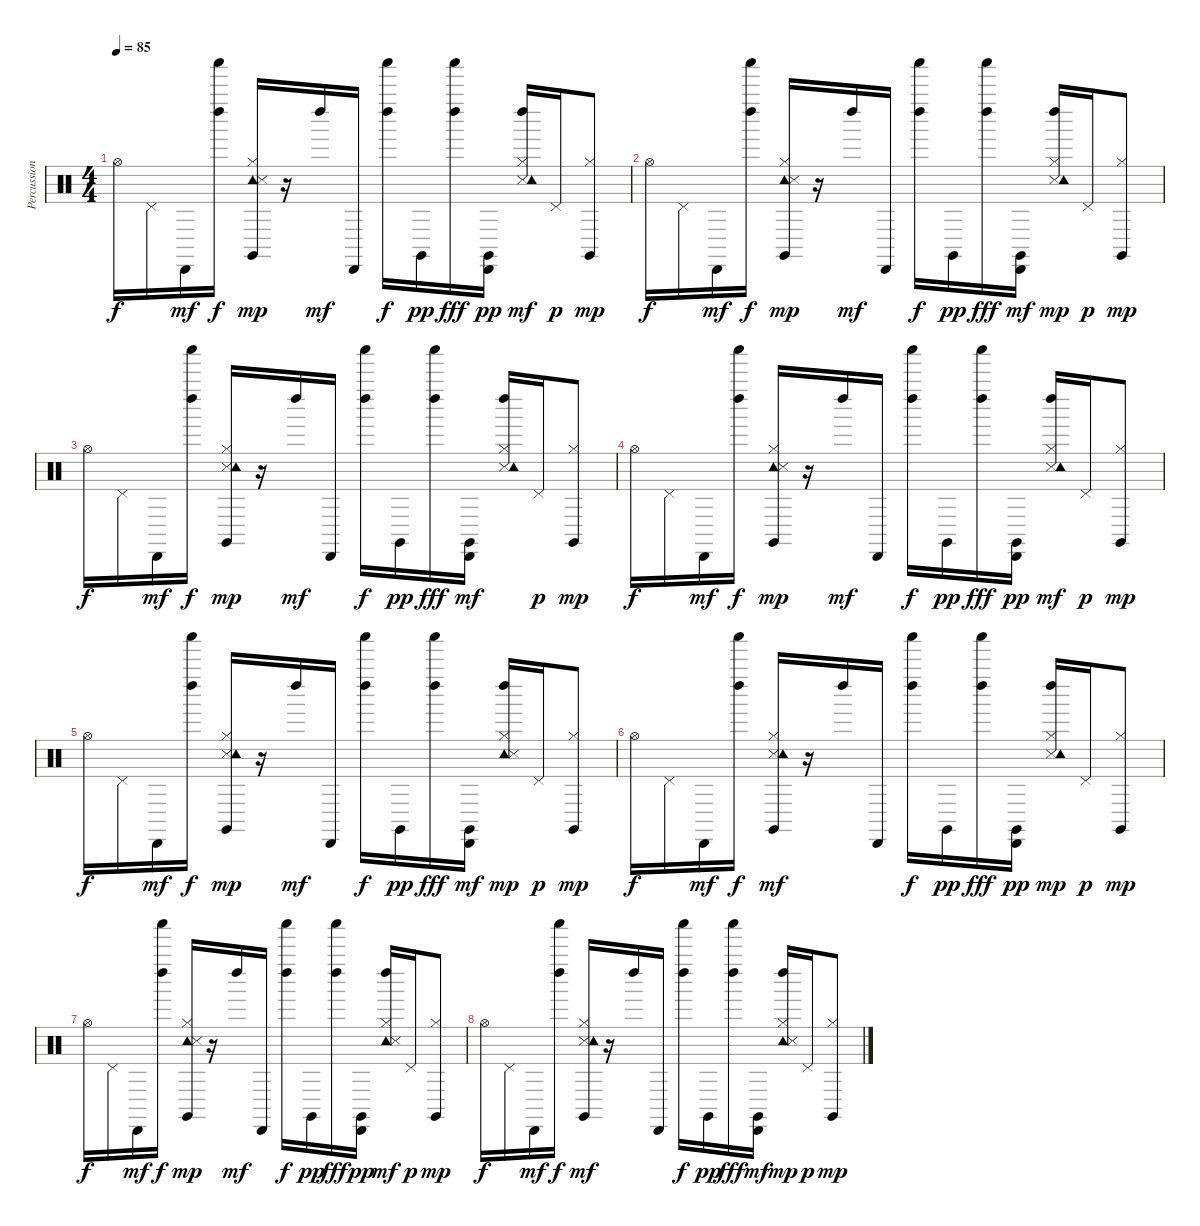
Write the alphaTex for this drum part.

\track ("Percussion" "Percussion") {instrument percussion}
\staff {score}
\articulation defaults
\ts (4 4)
\tempo 85
\clef neutral
\ks c "Hi-Hat (open)".16{dy f} "Pedal Hi-Hat (hit)".16 "Cabasa (hit)".16{dy mf}
("Left Maraca (hit)" "Shaker (hit)").16{dy f} ("Claves (hit)" "Tambourine (hit)" "Snare (side stick) 3" "Hi-Hat (closed)").16{dy mp} r.16 "Left Maraca (hit)".16{dy mf} "Cabasa (hit)".16 ("Left Maraca (hit)" "Shaker (hit)").16{dy f} "Claves (hit)".16{dy pp} ("Shaker (hit)" "Left Maraca (hit)").16{dy fff} ("Cabasa (hit)" "Claves (hit)").16{dy pp} ("Hi-Hat (closed)" "Snare (side stick) 3" "Left Maraca (hit)" "Tambourine (hit)").16{dy mf} "Pedal Hi-Hat (hit)".16{dy p} ("Claves (hit)" "Hi-Hat (closed)").8{dy mp} |
"Hi-Hat (open)".16{dy f} "Pedal Hi-Hat (hit)".16 "Cabasa (hit)".16{dy mf} ("Left Maraca (hit)" "Shaker (hit)").16{dy f} ("Tambourine (hit)" "Hi-Hat (closed)" "Claves (hit)" "Snare (side stick) 3").16{dy mp} r.16 "Left Maraca (hit)".16{dy mf} "Cabasa (hit)".16 ("Left Maraca (hit)" "Shaker (hit)").16{dy f} "Claves (hit)".16{dy pp} ("Left Maraca (hit)" "Shaker (hit)").16{dy fff} ("Claves (hit)" "Cabasa (hit)").16{dy mf} ("Snare (side stick) 3" "Left Maraca (hit)" "Tambourine (hit)" "Hi-Hat (closed)").16{dy mp} "Pedal Hi-Hat (hit)".16{dy p} ("Hi-Hat (closed)" "Claves (hit)").8{dy mp} |
"Hi-Hat (open)".16{dy f} "Pedal Hi-Hat (hit)".16 "Cabasa (hit)".16{dy mf} ("Shaker (hit)" "Left Maraca (hit)").16{dy f} ("Snare (side stick) 3" "Claves (hit)" "Tambourine (hit)" "Hi-Hat (closed)").16{dy mp} r.16 "Left Maraca (hit)".16{dy mf} "Cabasa (hit)".16 ("Left Maraca (hit)" "Shaker (hit)").16{dy f} "Claves (hit)".16{dy pp} ("Left Maraca (hit)" "Shaker (hit)").16{dy fff} ("Claves (hit)" "Cabasa (hit)").16{dy mf} ("Left Maraca (hit)" "Snare (side stick) 3" "Hi-Hat (closed)" "Tambourine (hit)").16 "Pedal Hi-Hat (hit)".16{dy p} ("Claves (hit)" "Hi-Hat (closed)").8{dy mp} |
"Hi-Hat (open)".16{dy f} "Pedal Hi-Hat (hit)".16 "Cabasa (hit)".16{dy mf} ("Shaker (hit)" "Left Maraca (hit)").16{dy f} ("Claves (hit)" "Tambourine (hit)" "Snare (side stick) 3" "Hi-Hat (closed)").16{dy mp} r.16 "Left Maraca (hit)".16{dy mf} "Cabasa (hit)".16 ("Left Maraca (hit)" "Shaker (hit)").16{dy f} "Claves (hit)".16{dy pp} ("Shaker (hit)" "Left Maraca (hit)").16{dy fff} ("Cabasa (hit)" "Claves (hit)").16{dy pp} ("Snare (side stick) 3" "Hi-Hat (closed)" "Left Maraca (hit)" "Tambourine (hit)").16{dy mf} "Pedal Hi-Hat (hit)".16{dy p} ("Claves (hit)" "Hi-Hat (closed)").8{dy mp} |
"Hi-Hat (open)".16{dy f} "Pedal Hi-Hat (hit)".16 "Cabasa (hit)".16{dy mf} ("Shaker (hit)" "Left Maraca (hit)").16{dy f} ("Hi-Hat (closed)" "Snare (side stick) 3" "Tambourine (hit)" "Claves (hit)").16{dy mp} r.16 "Left Maraca (hit)".16{dy mf} "Cabasa (hit)".16 ("Shaker (hit)" "Left Maraca (hit)").16{dy f} "Claves (hit)".16{dy pp} ("Shaker (hit)" "Left Maraca (hit)").16{dy fff} ("Claves (hit)" "Cabasa (hit)").16{dy mf} ("Tambourine (hit)" "Snare (side stick) 3" "Left Maraca (hit)" "Hi-Hat (closed)").16{dy mp} "Pedal Hi-Hat (hit)".16{dy p} ("Claves (hit)" "Hi-Hat (closed)").8{dy mp} |
"Hi-Hat (open)".16{dy f} "Pedal Hi-Hat (hit)".16 "Cabasa (hit)".16{dy mf} ("Left Maraca (hit)" "Shaker (hit)").16{dy f} ("Claves (hit)" "Hi-Hat (closed)" "Snare (side stick) 3" "Tambourine (hit)").16{dy mf} r.16 "Left Maraca (hit)".16 "Cabasa (hit)".16 ("Left Maraca (hit)" "Shaker (hit)").16{dy f} "Claves (hit)".16{dy pp} ("Left Maraca (hit)" "Shaker (hit)").16{dy fff} ("Cabasa (hit)" "Claves (hit)").16{dy pp} ("Hi-Hat (closed)" "Snare (side stick) 3" "Tambourine (hit)" "Left Maraca (hit)").16{dy mp} "Pedal Hi-Hat (hit)".16{dy p} ("Hi-Hat (closed)" "Claves (hit)").8{dy mp} |
"Hi-Hat (open)".16{dy f} "Pedal Hi-Hat (hit)".16 "Cabasa (hit)".16{dy mf} ("Shaker (hit)" "Left Maraca (hit)").16{dy f} ("Tambourine (hit)" "Claves (hit)" "Hi-Hat (closed)" "Snare (side stick) 3").16{dy mp} r.16 "Left Maraca (hit)".16{dy mf} "Cabasa (hit)".16 ("Shaker (hit)" "Left Maraca (hit)").16{dy f} "Claves (hit)".16{dy pp} ("Shaker (hit)" "Left Maraca (hit)").16{dy fff} ("Cabasa (hit)" "Claves (hit)").16{dy pp} ("Left Maraca (hit)" "Hi-Hat (closed)" "Tambourine (hit)" "Snare (side stick) 3").16{dy mf} "Pedal Hi-Hat (hit)".16{dy p} ("Claves (hit)" "Hi-Hat (closed)").8{dy mp} |
"Hi-Hat (open)".16{dy f} "Pedal Hi-Hat (hit)".16 "Cabasa (hit)".16{dy mf} ("Shaker (hit)" "Left Maraca (hit)").16{dy f} ("Snare (side stick) 3" "Hi-Hat (closed)" "Claves (hit)" "Tambourine (hit)").16{dy mf} r.16 "Left Maraca (hit)".16 "Cabasa (hit)".16 ("Left Maraca (hit)" "Shaker (hit)").16{dy f} "Claves (hit)".16{dy pp} ("Left Maraca (hit)" "Shaker (hit)").16{dy fff} ("Claves (hit)" "Cabasa (hit)").16{dy mf} ("Tambourine (hit)" "Left Maraca (hit)" "Snare (side stick) 3" "Hi-Hat (closed)").16{dy mp} "Pedal Hi-Hat (hit)".16{dy p} ("Hi-Hat (closed)" "Claves (hit)").8{dy mp}
